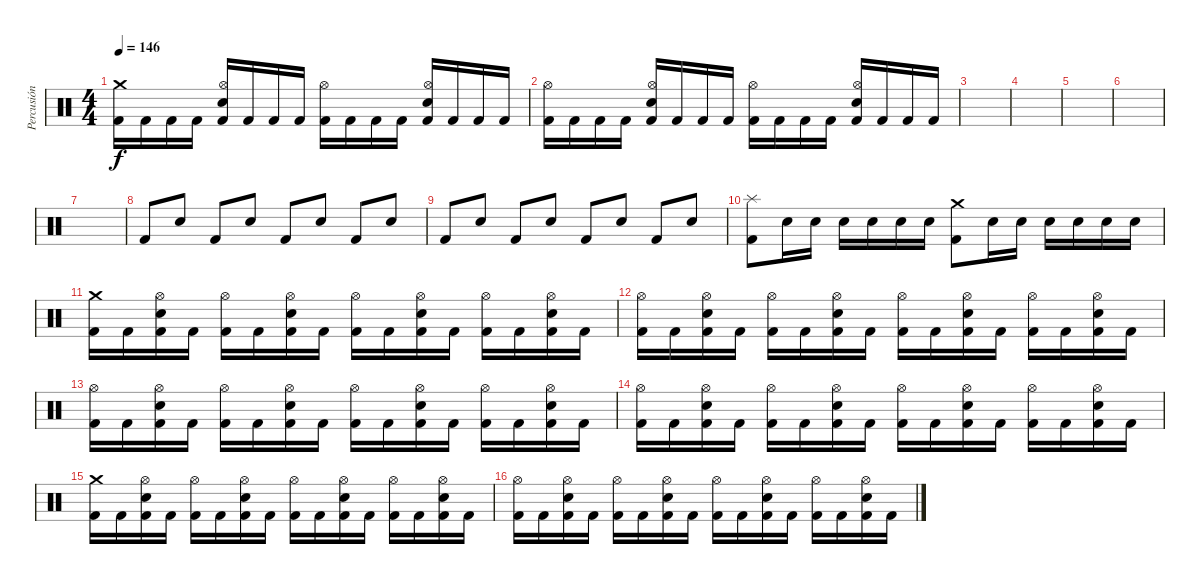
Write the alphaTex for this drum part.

\track ("Percusión" "Percusión") {instrument percussion}
\staff {score}
\articulation defaults
\ts (4 4)
\tempo 146
\clef neutral
\ks c
("Crash medium (hit)" "Kick (hit) 2").16{dy f} "Kick (hit) 2".16 "Kick (hit) 2".16 "Kick (hit) 2".16 ("Hi-Hat (open)" "Snare (hit) 2" "Kick (hit) 2").16 "Kick (hit) 2".16 "Kick (hit) 2".16 "Kick (hit) 2".16 ("Hi-Hat (open)" "Kick (hit) 2").16 "Kick (hit) 2".16 "Kick (hit) 2".16 "Kick (hit) 2".16 ("Hi-Hat (open)" "Snare (hit) 2" "Kick (hit) 2").16 "Kick (hit) 2".16 "Kick (hit) 2".16 "Kick (hit) 2".16 |
("Hi-Hat (open)" "Kick (hit) 2").16 "Kick (hit) 2".16 "Kick (hit) 2".16 "Kick (hit) 2".16 ("Hi-Hat (open)" "Snare (hit) 2" "Kick (hit) 2").16 "Kick (hit) 2".16 "Kick (hit) 2".16 "Kick (hit) 2".16 ("Hi-Hat (open)" "Kick (hit) 2").16 "Kick (hit) 2".16 "Kick (hit) 2".16 "Kick (hit) 2".16 ("Hi-Hat (open)" "Snare (hit) 2" "Kick (hit) 2").16 "Kick (hit) 2".16 "Kick (hit) 2".16 "Kick (hit) 2".16 |
|
|
|
|
|
"Kick (hit) 2".8{volume 15} "Snare (hit) 2".8 "Kick (hit) 2".8 "Snare (hit) 2".8 "Kick (hit) 2".8 "Snare (hit) 2".8 "Kick (hit) 2".8 "Snare (hit) 2".8 |
"Kick (hit) 2".8 "Snare (hit) 2".8 "Kick (hit) 2".8 "Snare (hit) 2".8 "Kick (hit) 2".8 "Snare (hit) 2".8 "Kick (hit) 2".8 "Snare (hit) 2".8 |
("Splash (hit)" "Kick (hit) 2").8 "Snare (hit) 2".16 "Snare (hit) 2".16 "Snare (hit) 2".16 "Snare (hit) 2".16 "Snare (hit) 2".16 "Snare (hit) 2".16 ("Crash medium (hit)" "Kick (hit) 2").8 "Snare (hit) 2".16 "Snare (hit) 2".16 "Snare (hit) 2".16 "Snare (hit) 2".16 "Snare (hit) 2".16 "Snare (hit) 2".16 |
("Crash medium (hit)" "Kick (hit) 2").16 "Kick (hit) 2".16 ("Hi-Hat (open)" "Snare (hit) 2" "Kick (hit) 2").16 "Kick (hit) 2".16 ("Hi-Hat (open)" "Kick (hit) 2").16 "Kick (hit) 2".16 ("Hi-Hat (open)" "Snare (hit) 2" "Kick (hit) 2").16 "Kick (hit) 2".16 ("Hi-Hat (open)" "Kick (hit) 2").16 "Kick (hit) 2".16 ("Hi-Hat (open)" "Snare (hit) 2" "Kick (hit) 2").16 "Kick (hit) 2".16 ("Hi-Hat (open)" "Kick (hit) 2").16 "Kick (hit) 2".16 ("Hi-Hat (open)" "Snare (hit) 2" "Kick (hit) 2").16 "Kick (hit) 2".16 |
("Hi-Hat (open)" "Kick (hit) 2").16 "Kick (hit) 2".16 ("Hi-Hat (open)" "Snare (hit) 2" "Kick (hit) 2").16 "Kick (hit) 2".16 ("Hi-Hat (open)" "Kick (hit) 2").16 "Kick (hit) 2".16 ("Hi-Hat (open)" "Snare (hit) 2" "Kick (hit) 2").16 "Kick (hit) 2".16 ("Hi-Hat (open)" "Kick (hit) 2").16 "Kick (hit) 2".16 ("Hi-Hat (open)" "Snare (hit) 2" "Kick (hit) 2").16 "Kick (hit) 2".16 ("Hi-Hat (open)" "Kick (hit) 2").16 "Kick (hit) 2".16 ("Hi-Hat (open)" "Snare (hit) 2" "Kick (hit) 2").16 "Kick (hit) 2".16 |
("Hi-Hat (open)" "Kick (hit) 2").16 "Kick (hit) 2".16 ("Hi-Hat (open)" "Snare (hit) 2" "Kick (hit) 2").16 "Kick (hit) 2".16 ("Hi-Hat (open)" "Kick (hit) 2").16 "Kick (hit) 2".16 ("Hi-Hat (open)" "Snare (hit) 2" "Kick (hit) 2").16 "Kick (hit) 2".16 ("Hi-Hat (open)" "Kick (hit) 2").16 "Kick (hit) 2".16 ("Hi-Hat (open)" "Snare (hit) 2" "Kick (hit) 2").16 "Kick (hit) 2".16 ("Hi-Hat (open)" "Kick (hit) 2").16 "Kick (hit) 2".16 ("Hi-Hat (open)" "Snare (hit) 2" "Kick (hit) 2").16 "Kick (hit) 2".16 |
("Hi-Hat (open)" "Kick (hit) 2").16 "Kick (hit) 2".16 ("Hi-Hat (open)" "Snare (hit) 2" "Kick (hit) 2").16 "Kick (hit) 2".16 ("Hi-Hat (open)" "Kick (hit) 2").16 "Kick (hit) 2".16 ("Hi-Hat (open)" "Snare (hit) 2" "Kick (hit) 2").16 "Kick (hit) 2".16 ("Hi-Hat (open)" "Kick (hit) 2").16 "Kick (hit) 2".16 ("Hi-Hat (open)" "Snare (hit) 2" "Kick (hit) 2").16 "Kick (hit) 2".16 ("Hi-Hat (open)" "Kick (hit) 2").16 "Kick (hit) 2".16 ("Hi-Hat (open)" "Snare (hit) 2" "Kick (hit) 2").16 "Kick (hit) 2".16 |
("Crash medium (hit)" "Kick (hit) 2").16 "Kick (hit) 2".16 ("Hi-Hat (open)" "Snare (hit) 2" "Kick (hit) 2").16 "Kick (hit) 2".16 ("Hi-Hat (open)" "Kick (hit) 2").16 "Kick (hit) 2".16 ("Hi-Hat (open)" "Snare (hit) 2" "Kick (hit) 2").16 "Kick (hit) 2".16 ("Hi-Hat (open)" "Kick (hit) 2").16 "Kick (hit) 2".16 ("Hi-Hat (open)" "Snare (hit) 2" "Kick (hit) 2").16 "Kick (hit) 2".16 ("Hi-Hat (open)" "Kick (hit) 2").16 "Kick (hit) 2".16 ("Hi-Hat (open)" "Snare (hit) 2" "Kick (hit) 2").16 "Kick (hit) 2".16 |
("Hi-Hat (open)" "Kick (hit) 2").16 "Kick (hit) 2".16 ("Hi-Hat (open)" "Snare (hit) 2" "Kick (hit) 2").16 "Kick (hit) 2".16 ("Hi-Hat (open)" "Kick (hit) 2").16 "Kick (hit) 2".16 ("Hi-Hat (open)" "Snare (hit) 2" "Kick (hit) 2").16 "Kick (hit) 2".16 ("Hi-Hat (open)" "Kick (hit) 2").16 "Kick (hit) 2".16 ("Hi-Hat (open)" "Snare (hit) 2" "Kick (hit) 2").16 "Kick (hit) 2".16 ("Hi-Hat (open)" "Kick (hit) 2").16 "Kick (hit) 2".16 ("Hi-Hat (open)" "Snare (hit) 2" "Kick (hit) 2").16 "Kick (hit) 2".16
